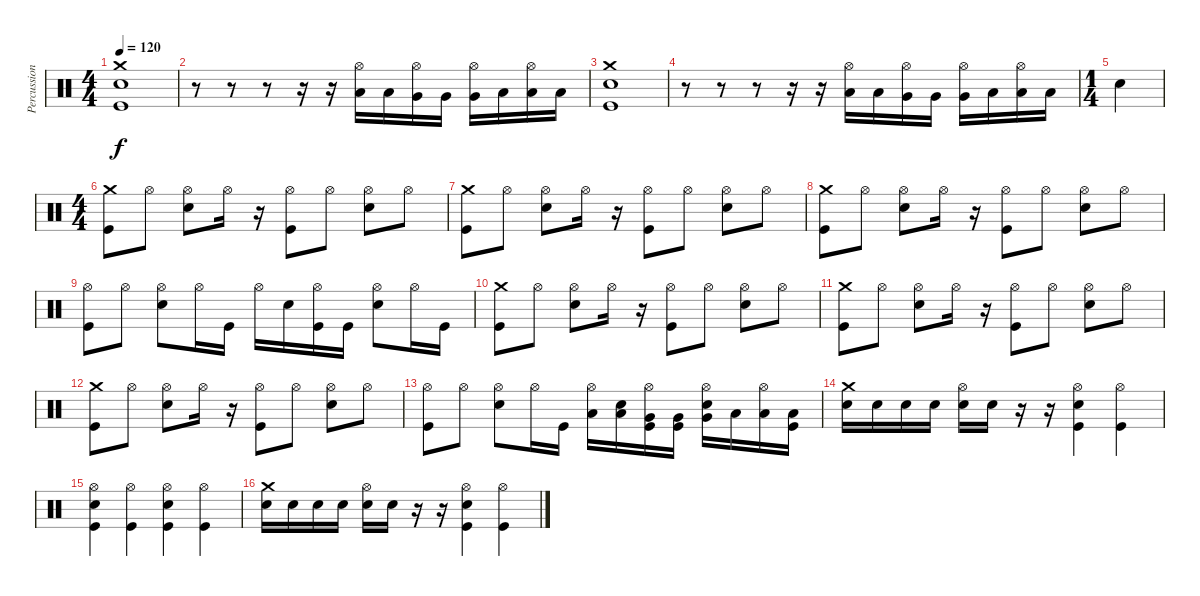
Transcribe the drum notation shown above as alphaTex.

\track ("Percussion" "Percussion") {instrument percussion}
\staff {score}
\articulation defaults
\ts (4 4)
\tempo 120
\clef neutral
\ks c
("Crash medium (hit)" "Electric Snare (hit)" "Kick (hit)").1{dy f} |
r.8 r.8 r.8 r.16 r.16 ("Low Tom (hit)" "Hi-Hat (open)").16 "Low Tom (hit)".16 ("Very Low Tom (hit)" "Hi-Hat (open)").16 "Very Low Tom (hit)".16 ("Very Low Tom (hit)" "Hi-Hat (open)").16 "Low Floor Tom (hit)".16 ("Low Floor Tom (hit)" "Hi-Hat (open)").16 "Low Floor Tom (hit)".16 |
("Crash medium (hit)" "Electric Snare (hit)" "Kick (hit)").1 |
r.8 r.8 r.8 r.16 r.16 ("Low Tom (hit)" "Hi-Hat (open)").16 "Low Tom (hit)".16 ("Very Low Tom (hit)" "Hi-Hat (open)").16 "Very Low Tom (hit)".16 ("Very Low Tom (hit)" "Hi-Hat (open)").16 "Low Floor Tom (hit)".16 ("Low Floor Tom (hit)" "Hi-Hat (open)").16 "Low Floor Tom (hit)".16 |
\ts (1 4)
"Electric Snare (hit)".4 |
\ts (4 4)
("Kick (hit)" "Crash medium (hit)").8 "Hi-Hat (open)".8 ("Hi-Hat (open)" "Electric Snare (hit)").8 "Hi-Hat (open)".16 r.16 ("Kick (hit)" "Hi-Hat (open)").8 "Hi-Hat (open)".8 ("Hi-Hat (open)" "Electric Snare (hit)").8 "Hi-Hat (open)".8 |
("Kick (hit)" "Crash medium (hit)").8 "Hi-Hat (open)".8 ("Hi-Hat (open)" "Electric Snare (hit)").8 "Hi-Hat (open)".16 r.16 ("Kick (hit)" "Hi-Hat (open)").8 "Hi-Hat (open)".8 ("Hi-Hat (open)" "Electric Snare (hit)").8 "Hi-Hat (open)".8 |
("Kick (hit)" "Crash medium (hit)").8 "Hi-Hat (open)".8 ("Hi-Hat (open)" "Electric Snare (hit)").8 "Hi-Hat (open)".16 r.16 ("Kick (hit)" "Hi-Hat (open)").8 "Hi-Hat (open)".8 ("Hi-Hat (open)" "Electric Snare (hit)").8 "Hi-Hat (open)".8 |
("Kick (hit)" "Hi-Hat (open)").8 "Hi-Hat (open)".8 ("Hi-Hat (open)" "Electric Snare (hit)").8 "Hi-Hat (open)".16 "Kick (hit)".16 "Hi-Hat (open)".16 "Electric Snare (hit)".16 ("Kick (hit)" "Hi-Hat (open)").16 "Kick (hit)".16 ("Hi-Hat (open)" "Electric Snare (hit)").8 "Hi-Hat (open)".16 "Kick (hit)".16 |
("Kick (hit)" "Crash medium (hit)").8 "Hi-Hat (open)".8 ("Hi-Hat (open)" "Electric Snare (hit)").8 "Hi-Hat (open)".16 r.16 ("Kick (hit)" "Hi-Hat (open)").8 "Hi-Hat (open)".8 ("Hi-Hat (open)" "Electric Snare (hit)").8 "Hi-Hat (open)".8 |
("Kick (hit)" "Crash medium (hit)").8 "Hi-Hat (open)".8 ("Hi-Hat (open)" "Electric Snare (hit)").8 "Hi-Hat (open)".16 r.16 ("Kick (hit)" "Hi-Hat (open)").8 "Hi-Hat (open)".8 ("Hi-Hat (open)" "Electric Snare (hit)").8 "Hi-Hat (open)".8 |
("Kick (hit)" "Crash medium (hit)").8 "Hi-Hat (open)".8 ("Hi-Hat (open)" "Electric Snare (hit)").8 "Hi-Hat (open)".16 r.16 ("Kick (hit)" "Hi-Hat (open)").8 "Hi-Hat (open)".8 ("Hi-Hat (open)" "Electric Snare (hit)").8 "Hi-Hat (open)".8 |
("Kick (hit)" "Hi-Hat (open)").8 "Hi-Hat (open)".8 ("Hi-Hat (open)" "Electric Snare (hit)").8 "Hi-Hat (open)".16 "Kick (hit)".16 ("Low Tom (hit)" "Hi-Hat (open)").16 ("Low Tom (hit)" "Electric Snare (hit)").16 ("Kick (hit)" "Very Low Tom (hit)" "Hi-Hat (open)").16 ("Kick (hit)" "Very Low Tom (hit)").16 ("Very Low Tom (hit)" "Hi-Hat (open)" "Electric Snare (hit)").16 "Low Floor Tom (hit)".16 ("Low Floor Tom (hit)" "Hi-Hat (open)").16 ("Kick (hit)" "Low Floor Tom (hit)").16 |
("Crash medium (hit)" "Electric Snare (hit)").16 "Electric Snare (hit)".16 "Electric Snare (hit)".16 "Electric Snare (hit)".16 ("Hi-Hat (open)" "Electric Snare (hit)").16 "Electric Snare (hit)".16 r.16 r.16 ("Hi-Hat (open)" "Electric Snare (hit)" "Kick (hit)").4 ("Hi-Hat (open)" "Kick (hit)").4 |
("Hi-Hat (open)" "Electric Snare (hit)" "Kick (hit)").4 ("Hi-Hat (open)" "Kick (hit)").4 ("Hi-Hat (open)" "Electric Snare (hit)" "Kick (hit)").4 ("Hi-Hat (open)" "Kick (hit)").4 |
("Crash medium (hit)" "Electric Snare (hit)").16 "Electric Snare (hit)".16 "Electric Snare (hit)".16 "Electric Snare (hit)".16 ("Hi-Hat (open)" "Electric Snare (hit)").16 "Electric Snare (hit)".16 r.16 r.16 ("Hi-Hat (open)" "Electric Snare (hit)" "Kick (hit)").4 ("Hi-Hat (open)" "Kick (hit)").4
